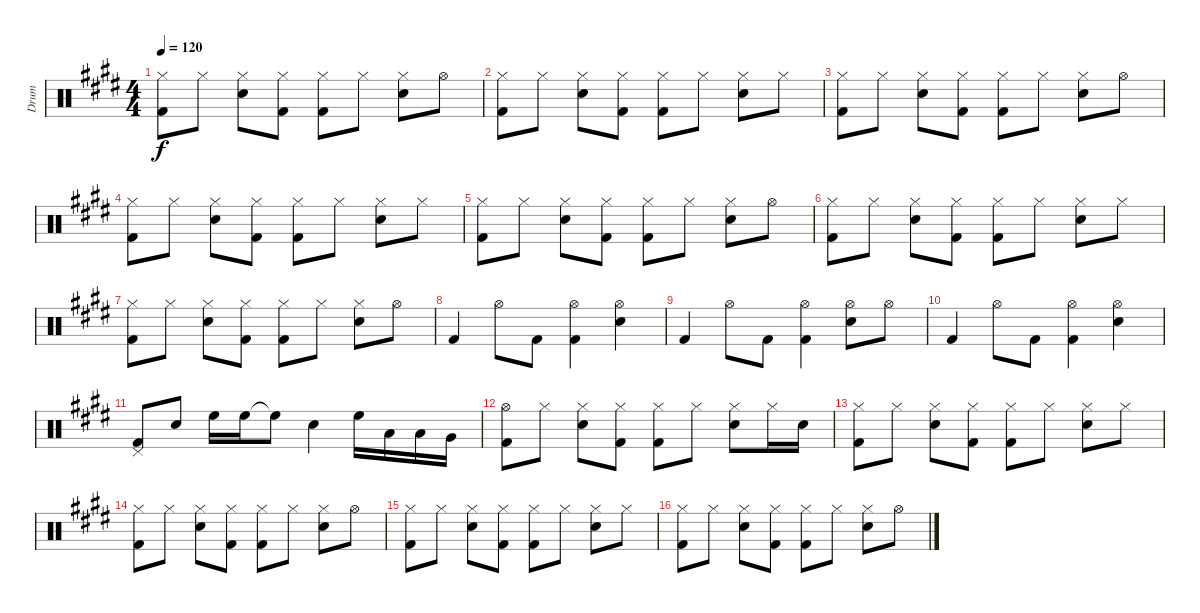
\track ("Drum" "Drum") {instrument percussion}
\staff {score}
\articulation defaults
\ts (4 4)
\tempo 120
\clef neutral
\ks e
("Hi-Hat (closed)" "Kick (hit) 2").8{dy f} "Hi-Hat (closed)".8 ("Hi-Hat (closed)" "Snare (hit) 2").8 ("Hi-Hat (closed)" "Kick (hit) 2").8 ("Hi-Hat (closed)" "Kick (hit) 2").8 "Hi-Hat (closed)".8 ("Hi-Hat (closed)" "Snare (hit) 2").8 "Hi-Hat (open)".8 |
("Hi-Hat (closed)" "Kick (hit) 2").8 "Hi-Hat (closed)".8 ("Hi-Hat (closed)" "Snare (hit) 2").8 ("Hi-Hat (closed)" "Kick (hit) 2").8 ("Hi-Hat (closed)" "Kick (hit) 2").8 "Hi-Hat (closed)".8 ("Hi-Hat (closed)" "Snare (hit) 2").8 "Hi-Hat (closed)".8 |
("Hi-Hat (closed)" "Kick (hit) 2").8 "Hi-Hat (closed)".8 ("Hi-Hat (closed)" "Snare (hit) 2").8 ("Hi-Hat (closed)" "Kick (hit) 2").8 ("Hi-Hat (closed)" "Kick (hit) 2").8 "Hi-Hat (closed)".8 ("Hi-Hat (closed)" "Snare (hit) 2").8 "Hi-Hat (open)".8 |
("Hi-Hat (closed)" "Kick (hit) 2").8 "Hi-Hat (closed)".8 ("Hi-Hat (closed)" "Snare (hit) 2").8 ("Hi-Hat (closed)" "Kick (hit) 2").8 ("Hi-Hat (closed)" "Kick (hit) 2").8 "Hi-Hat (closed)".8 ("Hi-Hat (closed)" "Snare (hit) 2").8 "Hi-Hat (closed)".8 |
("Hi-Hat (closed)" "Kick (hit) 2").8 "Hi-Hat (closed)".8 ("Hi-Hat (closed)" "Snare (hit) 2").8 ("Hi-Hat (closed)" "Kick (hit) 2").8 ("Hi-Hat (closed)" "Kick (hit) 2").8 "Hi-Hat (closed)".8 ("Hi-Hat (closed)" "Snare (hit) 2").8 "Hi-Hat (open)".8 |
("Hi-Hat (closed)" "Kick (hit) 2").8 "Hi-Hat (closed)".8 ("Hi-Hat (closed)" "Snare (hit) 2").8 ("Hi-Hat (closed)" "Kick (hit) 2").8 ("Hi-Hat (closed)" "Kick (hit) 2").8 "Hi-Hat (closed)".8 ("Hi-Hat (closed)" "Snare (hit) 2").8 "Hi-Hat (closed)".8 |
("Hi-Hat (closed)" "Kick (hit) 2").8 "Hi-Hat (closed)".8 ("Hi-Hat (closed)" "Snare (hit) 2").8 ("Hi-Hat (closed)" "Kick (hit) 2").8 ("Hi-Hat (closed)" "Kick (hit) 2").8 "Hi-Hat (closed)".8 ("Hi-Hat (closed)" "Snare (hit) 2").8 "Hi-Hat (open)".8 |
"Kick (hit) 2".4 "Hi-Hat (open)".8 "Kick (hit) 2".8 ("Hi-Hat (open)" "Kick (hit) 2").4 ("Hi-Hat (open)" "Snare (hit) 2").4 |
"Kick (hit) 2".4 "Hi-Hat (open)".8 "Kick (hit) 2".8 ("Hi-Hat (open)" "Kick (hit) 2").4 ("Hi-Hat (open)" "Snare (hit) 2").8 "Hi-Hat (open)".8 |
"Kick (hit) 2".4 "Hi-Hat (open)".8 "Kick (hit) 2".8 ("Hi-Hat (open)" "Kick (hit) 2").4 ("Hi-Hat (open)" "Snare (hit) 2").4 |
("Pedal Hi-Hat (hit)" "Kick (hit) 2").8 "Snare (hit) 2".8 "High Floor Tom (hit)".16 "High Floor Tom (hit)".16 "High Floor Tom (hit)"{t}.8 "Snare (hit) 2".4 "High Floor Tom (hit)".16 "Low Tom (hit)".16 "Low Tom (hit)".16 "Very Low Tom (hit)".16 |
("Hi-Hat (open)" "Kick (hit) 2").8 "Hi-Hat (closed)".8 ("Hi-Hat (closed)" "Snare (hit) 2").8 ("Hi-Hat (closed)" "Kick (hit) 2").8 ("Hi-Hat (closed)" "Kick (hit) 2").8 "Hi-Hat (closed)".8 ("Hi-Hat (closed)" "Snare (hit) 2").8 "Hi-Hat (closed)".16 "Snare (hit) 2".16 |
("Hi-Hat (closed)" "Kick (hit) 2").8 "Hi-Hat (closed)".8 ("Hi-Hat (closed)" "Snare (hit) 2").8 ("Hi-Hat (closed)" "Kick (hit) 2").8 ("Hi-Hat (closed)" "Kick (hit) 2").8 "Hi-Hat (closed)".8 ("Hi-Hat (closed)" "Snare (hit) 2").8 "Hi-Hat (closed)".8 |
("Hi-Hat (closed)" "Kick (hit) 2").8 "Hi-Hat (closed)".8 ("Hi-Hat (closed)" "Snare (hit) 2").8 ("Hi-Hat (closed)" "Kick (hit) 2").8 ("Hi-Hat (closed)" "Kick (hit) 2").8 "Hi-Hat (closed)".8 ("Hi-Hat (closed)" "Snare (hit) 2").8 "Hi-Hat (open)".8 |
("Hi-Hat (closed)" "Kick (hit) 2").8 "Hi-Hat (closed)".8 ("Hi-Hat (closed)" "Snare (hit) 2").8 ("Hi-Hat (closed)" "Kick (hit) 2").8 ("Hi-Hat (closed)" "Kick (hit) 2").8 "Hi-Hat (closed)".8 ("Hi-Hat (closed)" "Snare (hit) 2").8 "Hi-Hat (closed)".8 |
("Hi-Hat (closed)" "Kick (hit) 2").8 "Hi-Hat (closed)".8 ("Hi-Hat (closed)" "Snare (hit) 2").8 ("Hi-Hat (closed)" "Kick (hit) 2").8 ("Hi-Hat (closed)" "Kick (hit) 2").8 "Hi-Hat (closed)".8 ("Hi-Hat (closed)" "Snare (hit) 2").8 "Hi-Hat (open)".8
